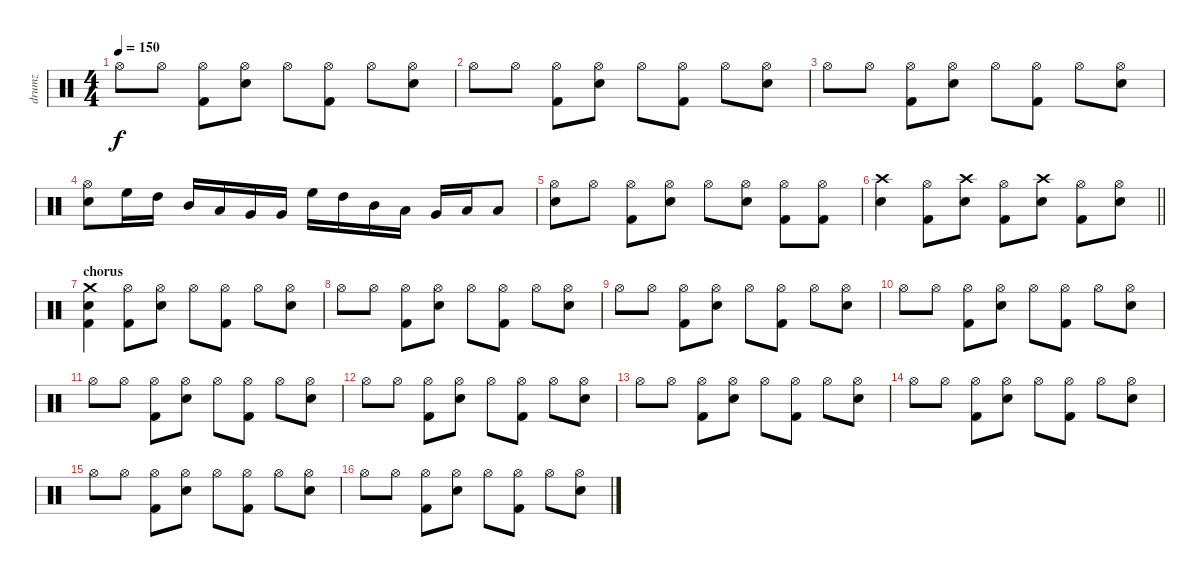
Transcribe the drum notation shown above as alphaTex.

\track ("drumz" "drumz") {instrument percussion}
\staff {score}
\articulation defaults
\ts (4 4)
\tempo 150
\clef neutral
\ks c "Hi-Hat (open)".8{dy f} "Hi-Hat (open)".8
("Hi-Hat (open)" "Kick (hit) 2").8 ("Hi-Hat (open)" "Electric Snare (hit)").8 "Hi-Hat (open)".8 ("Hi-Hat (open)" "Kick (hit) 2").8 "Hi-Hat (open)".8 ("Hi-Hat (open)" "Electric Snare (hit)").8 |
"Hi-Hat (open)".8 "Hi-Hat (open)".8 ("Hi-Hat (open)" "Kick (hit) 2").8 ("Hi-Hat (open)" "Electric Snare (hit)").8 "Hi-Hat (open)".8 ("Hi-Hat (open)" "Kick (hit) 2").8 "Hi-Hat (open)".8 ("Hi-Hat (open)" "Electric Snare (hit)").8 |
"Hi-Hat (open)".8 "Hi-Hat (open)".8 ("Hi-Hat (open)" "Kick (hit) 2").8 ("Hi-Hat (open)" "Electric Snare (hit)").8 "Hi-Hat (open)".8 ("Hi-Hat (open)" "Kick (hit) 2").8 "Hi-Hat (open)".8 ("Hi-Hat (open)" "Electric Snare (hit)").8 |
("Hi-Hat (open)" "Electric Snare (hit)").8 "High Floor Tom (hit)".16 "High Tom (hit)".16 "Mid Tom (hit)".16 "Low Tom (hit)".16 "Very Low Tom (hit)".16 "Very Low Tom (hit)".16 "High Floor Tom (hit)".16 "High Tom (hit)".16 "Mid Tom (hit)".16 "Low Tom (hit)".16 "Very Low Tom (hit)".16 "Low Floor Tom (hit)".16 "Low Floor Tom (hit)".8 |
("Hi-Hat (open)" "Electric Snare (hit)").8 "Hi-Hat (open)".8 ("Hi-Hat (open)" "Kick (hit) 2").8 ("Hi-Hat (open)" "Electric Snare (hit)").8 "Hi-Hat (open)".8 ("Hi-Hat (open)" "Electric Snare (hit)").8 ("Hi-Hat (open)" "Kick (hit) 2").8 ("Hi-Hat (open)" "Kick (hit) 2").8 |
\barLineRight lightlight
("Crash high (hit)" "Electric Snare (hit)").4 ("Hi-Hat (open)" "Kick (hit) 2").8 ("Crash high (hit)" "Electric Snare (hit)").8 ("Hi-Hat (open)" "Kick (hit) 2").8 ("Crash high (hit)" "Electric Snare (hit)").8 ("Hi-Hat (open)" "Kick (hit) 2").8 ("Hi-Hat (open)" "Electric Snare (hit)").8 |
\section ("" "chorus")
("Crash medium (hit)" "Electric Snare (hit)" "Kick (hit) 2").4 ("Hi-Hat (open)" "Kick (hit) 2").8 ("Hi-Hat (open)" "Electric Snare (hit)").8 "Hi-Hat (open)".8 ("Hi-Hat (open)" "Kick (hit) 2").8 "Hi-Hat (open)".8 ("Hi-Hat (open)" "Electric Snare (hit)").8 |
"Hi-Hat (open)".8 "Hi-Hat (open)".8 ("Hi-Hat (open)" "Kick (hit) 2").8 ("Hi-Hat (open)" "Electric Snare (hit)").8 "Hi-Hat (open)".8 ("Hi-Hat (open)" "Kick (hit) 2").8 "Hi-Hat (open)".8 ("Hi-Hat (open)" "Electric Snare (hit)").8 |
"Hi-Hat (open)".8 "Hi-Hat (open)".8 ("Hi-Hat (open)" "Kick (hit) 2").8 ("Hi-Hat (open)" "Electric Snare (hit)").8 "Hi-Hat (open)".8 ("Hi-Hat (open)" "Kick (hit) 2").8 "Hi-Hat (open)".8 ("Hi-Hat (open)" "Electric Snare (hit)").8 |
"Hi-Hat (open)".8 "Hi-Hat (open)".8 ("Hi-Hat (open)" "Kick (hit) 2").8 ("Hi-Hat (open)" "Electric Snare (hit)").8 "Hi-Hat (open)".8 ("Hi-Hat (open)" "Kick (hit) 2").8 "Hi-Hat (open)".8 ("Hi-Hat (open)" "Electric Snare (hit)").8 |
"Hi-Hat (open)".8 "Hi-Hat (open)".8 ("Hi-Hat (open)" "Kick (hit) 2").8 ("Hi-Hat (open)" "Electric Snare (hit)").8 "Hi-Hat (open)".8 ("Hi-Hat (open)" "Kick (hit) 2").8 "Hi-Hat (open)".8 ("Hi-Hat (open)" "Electric Snare (hit)").8 |
"Hi-Hat (open)".8 "Hi-Hat (open)".8 ("Hi-Hat (open)" "Kick (hit) 2").8 ("Hi-Hat (open)" "Electric Snare (hit)").8 "Hi-Hat (open)".8 ("Hi-Hat (open)" "Kick (hit) 2").8 "Hi-Hat (open)".8 ("Hi-Hat (open)" "Electric Snare (hit)").8 |
"Hi-Hat (open)".8 "Hi-Hat (open)".8 ("Hi-Hat (open)" "Kick (hit) 2").8 ("Hi-Hat (open)" "Electric Snare (hit)").8 "Hi-Hat (open)".8 ("Hi-Hat (open)" "Kick (hit) 2").8 "Hi-Hat (open)".8 ("Hi-Hat (open)" "Electric Snare (hit)").8 |
"Hi-Hat (open)".8 "Hi-Hat (open)".8 ("Hi-Hat (open)" "Kick (hit) 2").8 ("Hi-Hat (open)" "Electric Snare (hit)").8 "Hi-Hat (open)".8 ("Hi-Hat (open)" "Kick (hit) 2").8 "Hi-Hat (open)".8 ("Hi-Hat (open)" "Electric Snare (hit)").8 |
"Hi-Hat (open)".8 "Hi-Hat (open)".8 ("Hi-Hat (open)" "Kick (hit) 2").8 ("Hi-Hat (open)" "Electric Snare (hit)").8 "Hi-Hat (open)".8 ("Hi-Hat (open)" "Kick (hit) 2").8 "Hi-Hat (open)".8 ("Hi-Hat (open)" "Electric Snare (hit)").8 |
"Hi-Hat (open)".8 "Hi-Hat (open)".8 ("Hi-Hat (open)" "Kick (hit) 2").8 ("Hi-Hat (open)" "Electric Snare (hit)").8 "Hi-Hat (open)".8 ("Hi-Hat (open)" "Kick (hit) 2").8 "Hi-Hat (open)".8 ("Hi-Hat (open)" "Electric Snare (hit)").8
